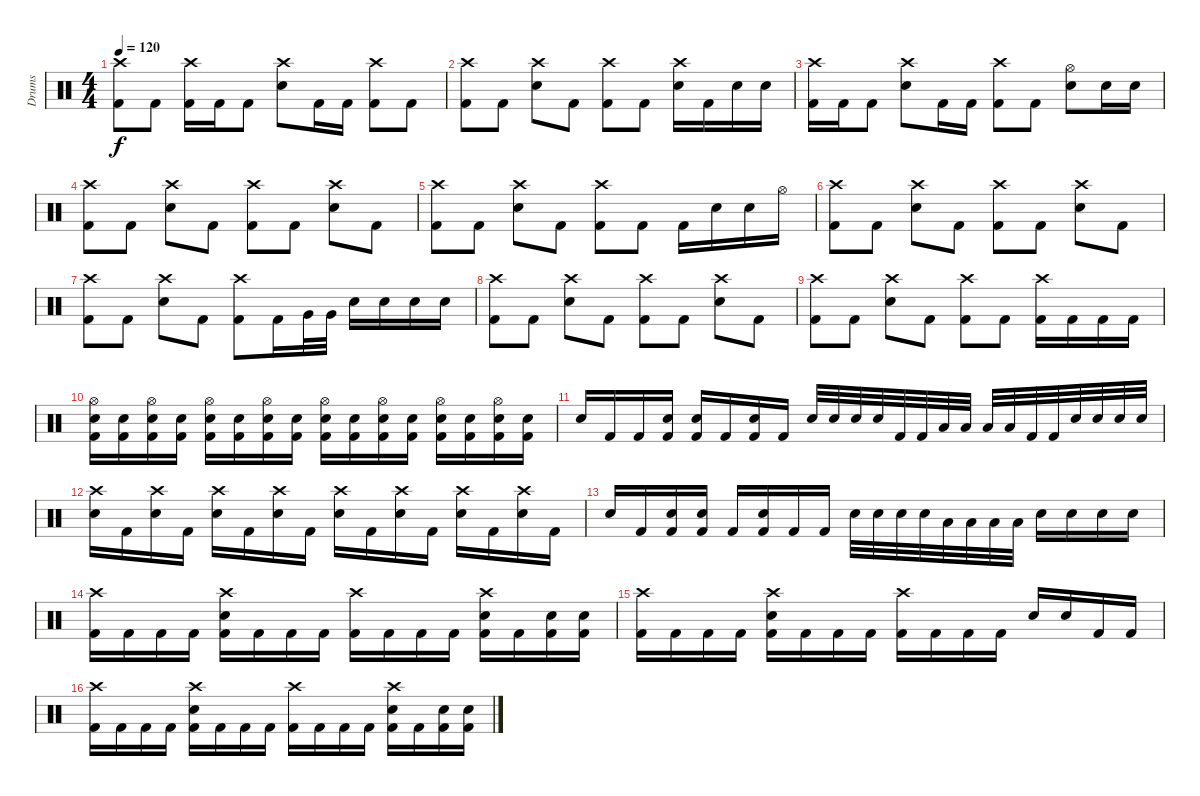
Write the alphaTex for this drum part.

\track ("Drums" "Drums") {instrument percussion}
\staff {score}
\articulation defaults
\ts (4 4)
\tempo 120
\clef neutral
\ks c
("Crash high (hit)" "Kick (hit) 2").8{dy f} "Kick (hit) 2".8 ("Crash high (hit)" "Kick (hit) 2").16 "Kick (hit) 2".16 "Kick (hit) 2".8 ("Crash high (hit)" "Electric Snare (hit)").8 "Kick (hit) 2".16 "Kick (hit) 2".16 ("Crash high (hit)" "Kick (hit) 2").8 "Kick (hit) 2".8 |
("Crash high (hit)" "Kick (hit) 2").8 "Kick (hit) 2".8 ("Crash high (hit)" "Electric Snare (hit)").8 "Kick (hit) 2".8 ("Crash high (hit)" "Kick (hit) 2").8 "Kick (hit) 2".8 ("Crash high (hit)" "Electric Snare (hit)").16 "Kick (hit) 2".16 "Electric Snare (hit)".16 "Electric Snare (hit)".16 |
("Crash high (hit)" "Kick (hit) 2").16 "Kick (hit) 2".16 "Kick (hit) 2".8 ("Crash high (hit)" "Electric Snare (hit)").8 "Kick (hit) 2".16 "Kick (hit) 2".16 ("Crash high (hit)" "Kick (hit) 2").8 "Kick (hit) 2".8 ("Hi-Hat (open)" "Electric Snare (hit)").8 "Electric Snare (hit)".16 "Electric Snare (hit)".16 |
("Crash high (hit)" "Kick (hit) 2").8 "Kick (hit) 2".8 ("Crash high (hit)" "Electric Snare (hit)").8 "Kick (hit) 2".8 ("Crash high (hit)" "Kick (hit) 2").8 "Kick (hit) 2".8 ("Crash high (hit)" "Electric Snare (hit)").8 "Kick (hit) 2".8 |
("Crash high (hit)" "Kick (hit) 2").8 "Kick (hit) 2".8 ("Crash high (hit)" "Electric Snare (hit)").8 "Kick (hit) 2".8 ("Crash high (hit)" "Kick (hit) 2").8 "Kick (hit) 2".8 "Kick (hit) 2".16 "Electric Snare (hit)".16 "Electric Snare (hit)".16 "Hi-Hat (open)".16 |
("Crash high (hit)" "Kick (hit) 2").8 "Kick (hit) 2".8 ("Crash high (hit)" "Electric Snare (hit)").8 "Kick (hit) 2".8 ("Crash high (hit)" "Kick (hit) 2").8 "Kick (hit) 2".8 ("Crash high (hit)" "Electric Snare (hit)").8 "Kick (hit) 2".8 |
("Crash high (hit)" "Kick (hit) 2").8 "Kick (hit) 2".8 ("Crash high (hit)" "Electric Snare (hit)").8 "Kick (hit) 2".8 ("Crash high (hit)" "Kick (hit) 2").8 "Kick (hit) 2".16 "Very Low Tom (hit)".32 "Very Low Tom (hit)".32 "Electric Snare (hit)".16 "Electric Snare (hit)".16 "Electric Snare (hit)".16 "Electric Snare (hit)".16 |
("Crash high (hit)" "Kick (hit) 2").8 "Kick (hit) 2".8 ("Crash high (hit)" "Electric Snare (hit)").8 "Kick (hit) 2".8 ("Crash high (hit)" "Kick (hit) 2").8 "Kick (hit) 2".8 ("Crash high (hit)" "Electric Snare (hit)").8 "Kick (hit) 2".8 |
("Crash high (hit)" "Kick (hit) 2").8 "Kick (hit) 2".8 ("Crash high (hit)" "Electric Snare (hit)").8 "Kick (hit) 2".8 ("Crash high (hit)" "Kick (hit) 2").8 "Kick (hit) 2".8 ("Crash high (hit)" "Kick (hit) 2").16 "Kick (hit) 2".16 "Kick (hit) 2".16 "Kick (hit) 2".16 |
("Hi-Hat (open)" "Electric Snare (hit)" "Kick (hit) 2").16 ("Electric Snare (hit)" "Kick (hit) 2").16 ("Hi-Hat (open)" "Electric Snare (hit)" "Kick (hit) 2").16 ("Electric Snare (hit)" "Kick (hit) 2").16 ("Hi-Hat (open)" "Electric Snare (hit)" "Kick (hit) 2").16 ("Electric Snare (hit)" "Kick (hit) 2").16 ("Hi-Hat (open)" "Electric Snare (hit)" "Kick (hit) 2").16 ("Electric Snare (hit)" "Kick (hit) 2").16 ("Hi-Hat (open)" "Electric Snare (hit)" "Kick (hit) 2").16 ("Electric Snare (hit)" "Kick (hit) 2").16 ("Hi-Hat (open)" "Electric Snare (hit)" "Kick (hit) 2").16 ("Electric Snare (hit)" "Kick (hit) 2").16 ("Hi-Hat (open)" "Electric Snare (hit)" "Kick (hit) 2").16 ("Electric Snare (hit)" "Kick (hit) 2").16 ("Hi-Hat (open)" "Electric Snare (hit)" "Kick (hit) 2").16 ("Electric Snare (hit)" "Kick (hit) 2").16 |
"Electric Snare (hit)".16 "Kick (hit) 2".16 "Kick (hit) 2".16 ("Electric Snare (hit)" "Kick (hit) 2").16 ("Electric Snare (hit)" "Kick (hit) 2").16 "Kick (hit) 2".16 ("Electric Snare (hit)" "Kick (hit) 2").16 "Kick (hit) 2".16 "Electric Snare (hit)".32 "Electric Snare (hit)".32 "Electric Snare (hit)".32 "Electric Snare (hit)".32 "Kick (hit) 2".32 "Kick (hit) 2".32 "Low Tom (hit)".32 "Low Tom (hit)".32 "Low Tom (hit)".32 "Low Tom (hit)".32 "Kick (hit) 2".32 "Kick (hit) 2".32 "Electric Snare (hit)".32 "Electric Snare (hit)".32 "Electric Snare (hit)".32 "Electric Snare (hit)".32 |
("Crash high (hit)" "Electric Snare (hit)").16 "Kick (hit) 2".16 ("Crash high (hit)" "Electric Snare (hit)").16 "Kick (hit) 2".16 ("Crash high (hit)" "Electric Snare (hit)").16 "Kick (hit) 2".16 ("Crash high (hit)" "Electric Snare (hit)").16 "Kick (hit) 2".16 ("Crash high (hit)" "Electric Snare (hit)").16 "Kick (hit) 2".16 ("Crash high (hit)" "Electric Snare (hit)").16 "Kick (hit) 2".16 ("Crash high (hit)" "Electric Snare (hit)").16 "Kick (hit) 2".16 ("Crash high (hit)" "Electric Snare (hit)").16 "Kick (hit) 2".16 |
"Electric Snare (hit)".16 "Kick (hit) 2".16 ("Electric Snare (hit)" "Kick (hit) 2").16 ("Electric Snare (hit)" "Kick (hit) 2").16 "Kick (hit) 2".16 ("Electric Snare (hit)" "Kick (hit) 2").16 "Kick (hit) 2".16 "Kick (hit) 2".16 "Electric Snare (hit)".32 "Electric Snare (hit)".32 "Electric Snare (hit)".32 "Electric Snare (hit)".32 "Low Tom (hit)".32 "Low Tom (hit)".32 "Low Tom (hit)".32 "Low Tom (hit)".32 "Electric Snare (hit)".16 "Electric Snare (hit)".16 "Electric Snare (hit)".16 "Electric Snare (hit)".16 |
("Crash high (hit)" "Kick (hit) 2").16 "Kick (hit) 2".16 "Kick (hit) 2".16 "Kick (hit) 2".16 ("Crash high (hit)" "Electric Snare (hit)" "Kick (hit) 2").16 "Kick (hit) 2".16 "Kick (hit) 2".16 "Kick (hit) 2".16 ("Crash high (hit)" "Kick (hit) 2").16 "Kick (hit) 2".16 "Kick (hit) 2".16 "Kick (hit) 2".16 ("Crash high (hit)" "Electric Snare (hit)" "Kick (hit) 2").16 "Kick (hit) 2".16 ("Electric Snare (hit)" "Kick (hit) 2").16 ("Electric Snare (hit)" "Kick (hit) 2").16 |
("Crash high (hit)" "Kick (hit) 2").16 "Kick (hit) 2".16 "Kick (hit) 2".16 "Kick (hit) 2".16 ("Crash high (hit)" "Electric Snare (hit)" "Kick (hit) 2").16 "Kick (hit) 2".16 "Kick (hit) 2".16 "Kick (hit) 2".16 ("Crash high (hit)" "Kick (hit) 2").16 "Kick (hit) 2".16 "Kick (hit) 2".16 "Kick (hit) 2".16 "Electric Snare (hit)".16 "Electric Snare (hit)".16 "Kick (hit) 2".16 "Kick (hit) 2".16 |
("Crash high (hit)" "Kick (hit) 2").16 "Kick (hit) 2".16 "Kick (hit) 2".16 "Kick (hit) 2".16 ("Crash high (hit)" "Electric Snare (hit)" "Kick (hit) 2").16 "Kick (hit) 2".16 "Kick (hit) 2".16 "Kick (hit) 2".16 ("Crash high (hit)" "Kick (hit) 2").16 "Kick (hit) 2".16 "Kick (hit) 2".16 "Kick (hit) 2".16 ("Crash high (hit)" "Electric Snare (hit)" "Kick (hit) 2").16 "Kick (hit) 2".16 ("Electric Snare (hit)" "Kick (hit) 2").16 ("Electric Snare (hit)" "Kick (hit) 2").16
